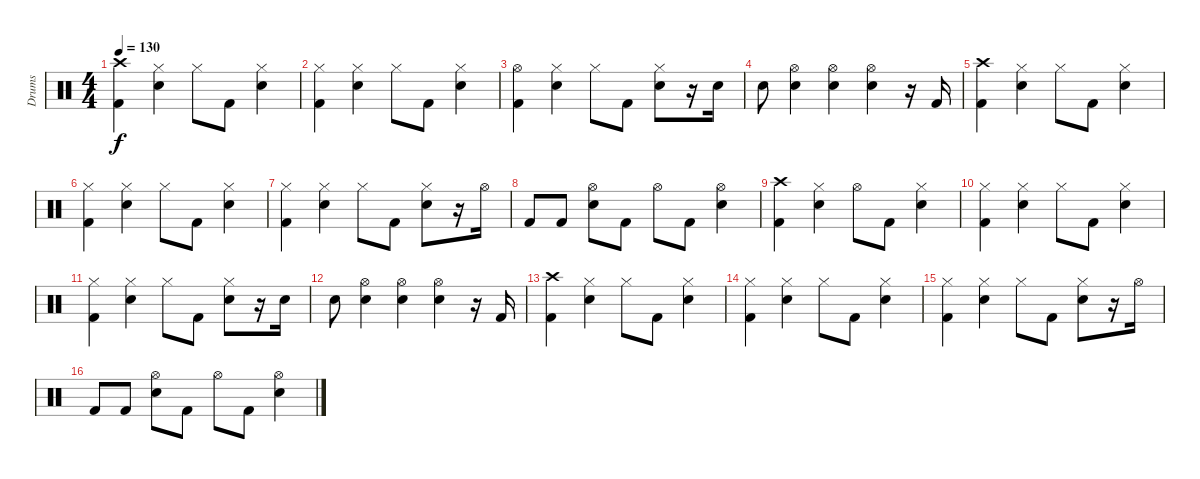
\track ("Drums" "Drums") {instrument percussion}
\staff {score}
\articulation defaults
\ts (4 4)
\tempo 130
\clef neutral
\ks c
("Kick (hit) 2" "Crash high (hit)").4{dy f} ("Snare (hit) 2" "Hi-Hat (closed)").4 "Hi-Hat (closed)".8 "Kick (hit) 2".8 ("Snare (hit) 2" "Hi-Hat (closed)").4 |
("Kick (hit) 2" "Hi-Hat (closed)").4 ("Snare (hit) 2" "Hi-Hat (closed)").4 "Hi-Hat (closed)".8 "Kick (hit) 2".8 ("Snare (hit) 2" "Hi-Hat (closed)").4 |
("Kick (hit) 2" "Hi-Hat (open)").4 ("Snare (hit) 2" "Hi-Hat (closed)").4 "Hi-Hat (closed)".8 "Kick (hit) 2".8 ("Snare (hit) 2" "Hi-Hat (closed)").8 r.16 "Snare (hit) 2".16 |
"Snare (hit) 2".8 ("Snare (hit) 2" "Hi-Hat (open)").4 ("Snare (hit) 2" "Hi-Hat (open)").4 ("Snare (hit) 2" "Hi-Hat (open)").4 r.16 "Kick (hit) 2".16 |
("Kick (hit) 2" "Crash high (hit)").4 ("Snare (hit) 2" "Hi-Hat (closed)").4 "Hi-Hat (closed)".8 "Kick (hit) 2".8 ("Snare (hit) 2" "Hi-Hat (closed)").4 |
("Kick (hit) 2" "Hi-Hat (closed)").4 ("Snare (hit) 2" "Hi-Hat (closed)").4 "Hi-Hat (closed)".8 "Kick (hit) 2".8 ("Snare (hit) 2" "Hi-Hat (closed)").4 |
("Kick (hit) 2" "Hi-Hat (closed)").4 ("Snare (hit) 2" "Hi-Hat (closed)").4 "Hi-Hat (closed)".8 "Kick (hit) 2".8 ("Snare (hit) 2" "Hi-Hat (closed)").8 r.16 "Hi-Hat (open)".16 |
"Kick (hit) 2".8 "Kick (hit) 2".8 ("Snare (hit) 2" "Hi-Hat (open)").8 "Kick (hit) 2".8 "Hi-Hat (open)".8 "Kick (hit) 2".8 ("Snare (hit) 2" "Hi-Hat (open)").4 |
("Kick (hit) 2" "Crash high (hit)").4 ("Snare (hit) 2" "Hi-Hat (closed)").4 "Hi-Hat (open)".8 "Kick (hit) 2".8 ("Snare (hit) 2" "Hi-Hat (closed)").4 |
("Kick (hit) 2" "Hi-Hat (closed)").4 ("Snare (hit) 2" "Hi-Hat (closed)").4 "Hi-Hat (closed)".8 "Kick (hit) 2".8 ("Snare (hit) 2" "Hi-Hat (closed)").4 |
("Kick (hit) 2" "Hi-Hat (closed)").4 ("Snare (hit) 2" "Hi-Hat (closed)").4 "Hi-Hat (closed)".8 "Kick (hit) 2".8 ("Snare (hit) 2" "Hi-Hat (closed)").8 r.16 "Snare (hit) 2".16 |
"Snare (hit) 2".8 ("Snare (hit) 2" "Hi-Hat (open)").4 ("Snare (hit) 2" "Hi-Hat (open)").4 ("Snare (hit) 2" "Hi-Hat (open)").4 r.16 "Kick (hit) 2".16 |
("Kick (hit) 2" "Crash high (hit)").4 ("Snare (hit) 2" "Hi-Hat (closed)").4 "Hi-Hat (closed)".8 "Kick (hit) 2".8 ("Snare (hit) 2" "Hi-Hat (closed)").4 |
("Kick (hit) 2" "Hi-Hat (closed)").4 ("Snare (hit) 2" "Hi-Hat (closed)").4 "Hi-Hat (closed)".8 "Kick (hit) 2".8 ("Snare (hit) 2" "Hi-Hat (closed)").4 |
("Kick (hit) 2" "Hi-Hat (closed)").4 ("Snare (hit) 2" "Hi-Hat (closed)").4 "Hi-Hat (closed)".8 "Kick (hit) 2".8 ("Snare (hit) 2" "Hi-Hat (closed)").8 r.16 "Hi-Hat (open)".16 |
"Kick (hit) 2".8 "Kick (hit) 2".8 ("Snare (hit) 2" "Hi-Hat (open)").8 "Kick (hit) 2".8 "Hi-Hat (open)".8 "Kick (hit) 2".8 ("Snare (hit) 2" "Hi-Hat (open)").4
